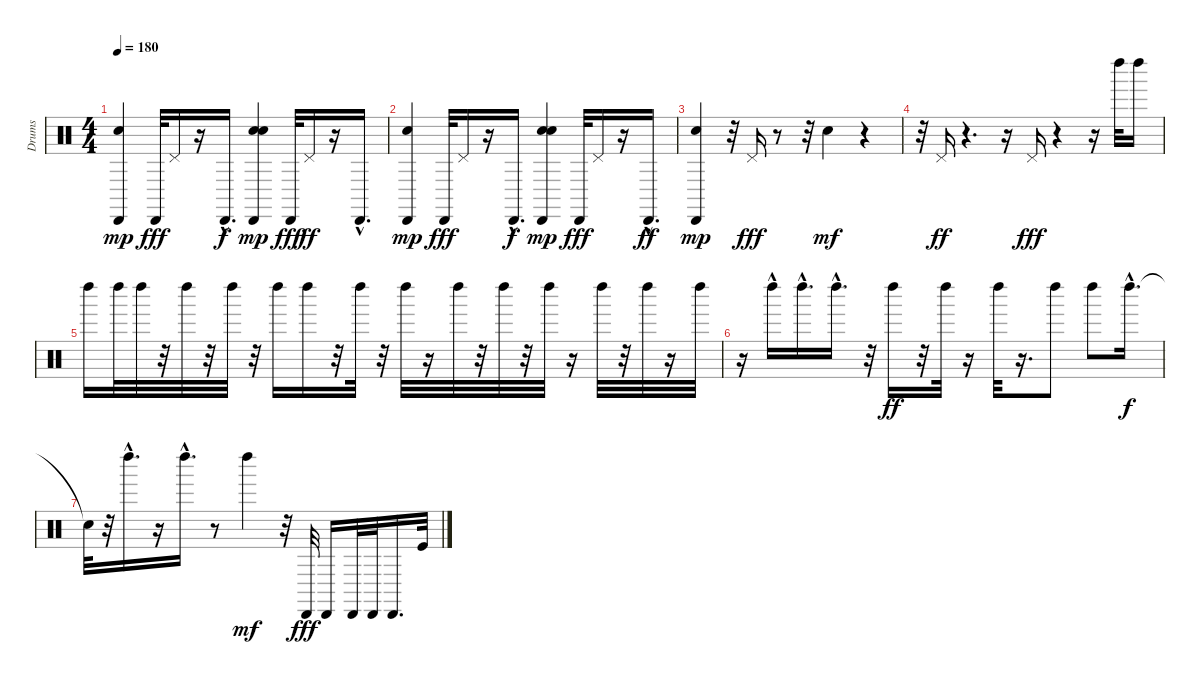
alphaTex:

\track ("Drums" "Drums") {instrument percussion}
\staff {score}
\articulation defaults
\ts (4 4)
\tempo 180
\clef neutral
\ks c
("Snare (hit) 2" "Cabasa (hit)").4{dy mp} "Cabasa (hit)".32{dy fff} "Pedal Hi-Hat (hit)".16 r.16 "Cabasa (hit)"{hac}.16{d dy f} ("Snare (hit) 2" "Snare (hit) 2" "Cabasa (hit)").4{dy mp} "Cabasa (hit)".32{dy fff} "Pedal Hi-Hat (hit)".16{dy ff} r.16 "Cabasa (hit)"{hac}.16{d} |
("Snare (hit) 2" "Cabasa (hit)").4{dy mp} "Cabasa (hit)".32{dy fff} "Pedal Hi-Hat (hit)".16 r.16 "Cabasa (hit)"{hac}.16{d dy f} ("Snare (hit) 2" "Snare (hit) 2" "Cabasa (hit)").4{dy mp} "Cabasa (hit)".32{dy fff} "Pedal Hi-Hat (hit)".16 r.16 "Cabasa (hit)"{hac}.16{d dy ff} |
("Snare (hit) 2" "Cabasa (hit)").4{dy mp} r.32 "Pedal Hi-Hat (hit)".16{dy fff} r.8 r.32 "Snare (hit) 2".4{dy mf} r.4 |
r.32 "Pedal Hi-Hat (hit)".16{dy ff} r.4{d} r.16 "Pedal Hi-Hat (hit)".16{dy fff} r.4 r.16 "Left Maraca (hit)".32 "Left Maraca (hit)".16 |
"Left Maraca (hit)".16 "Left Maraca (hit)".32 "Left Maraca (hit)".32 r.32 "Left Maraca (hit)".32 r.32 "Left Maraca (hit)".32 r.32 "Left Maraca (hit)".16 "Left Maraca (hit)".16 r.32 "Left Maraca (hit)".32 r.32 "Left Maraca (hit)".32 r.16 "Left Maraca (hit)".32 r.32 "Left Maraca (hit)".32 r.32 "Left Maraca (hit)".32 r.16 "Left Maraca (hit)".32 r.32 "Left Maraca (hit)".32 r.16 "Left Maraca (hit)".32 |
r.16 "Left Maraca (hit)"{hac}.16 "Left Maraca (hit)"{hac}.16{d} "Left Maraca (hit)"{hac}.16{d} r.32 "Left Maraca (hit)".16{dy ff} r.32 "Left Maraca (hit)".32 r.16 "Left Maraca (hit)".32 r.16{d} "Left Maraca (hit)".8 "Left Maraca (hit)".8 "Left Maraca (hit)"{hac}.16{d dy f} |
"Snare (hit)"{t}.32 r.32 "Left Maraca (hit)"{hac}.16{d} r.16 "Left Maraca (hit)"{hac}.16{d} r.8 "Left Maraca (hit)".4{dy mf} r.32 "Cabasa (hit)".32{dy fff} "Cabasa (hit)".16 "Cabasa (hit)".32 "Cabasa (hit)".32 "Cabasa (hit)".16{d} "Kick (hit)".32
